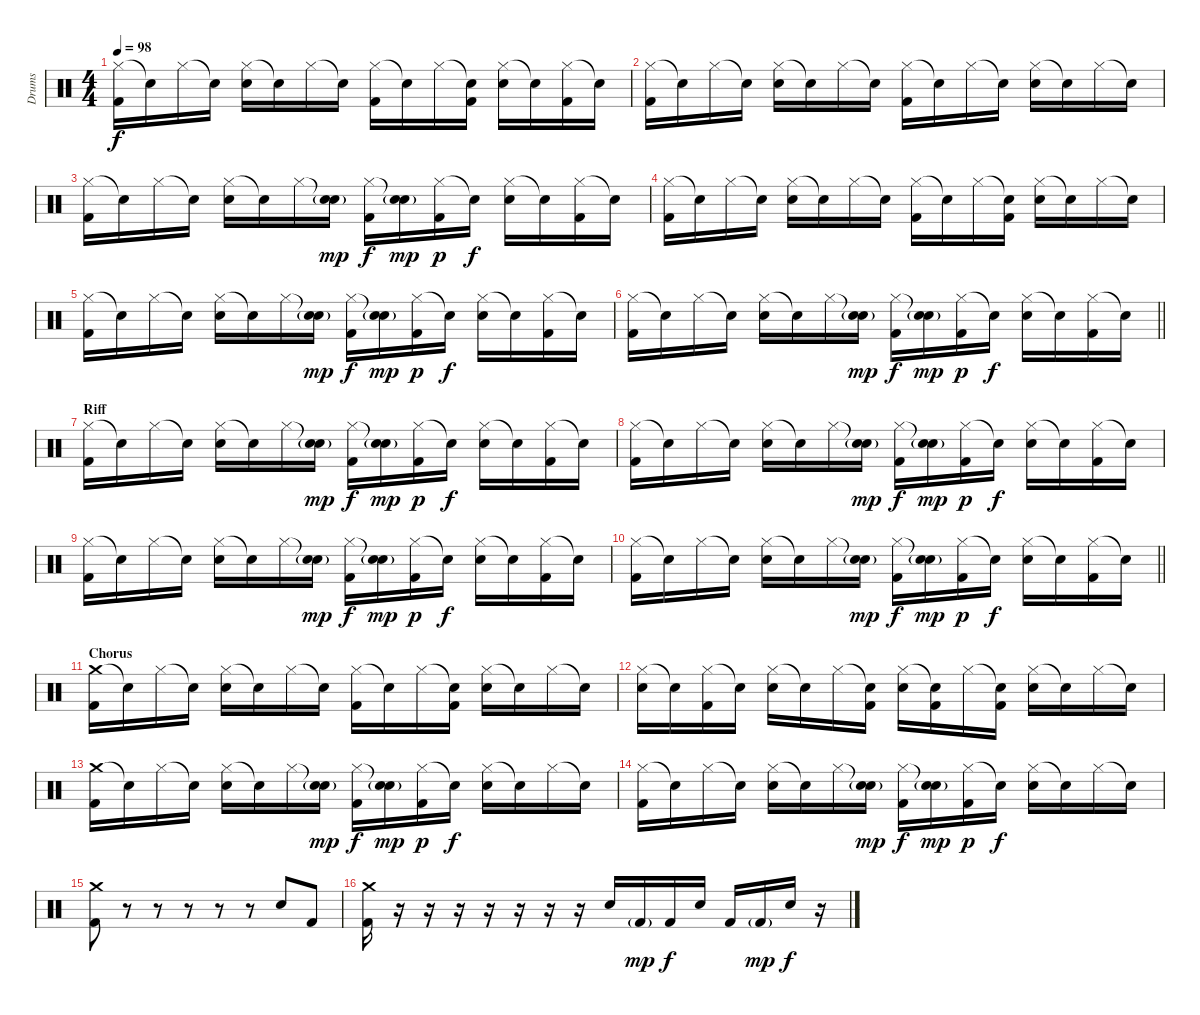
\track ("Drums" "Drums") {instrument percussion}
\staff {score}
\articulation defaults
\ts (4 4)
\tempo 98
\clef neutral
\ks c
("Hi-Hat (closed)" "Kick (hit) 2").16{dy f} "Snare (hit)"{t}.16 "Hi-Hat (closed)".16 "Snare (hit)"{t}.16 ("Hi-Hat (closed)" "Snare (hit) 2").16 "Snare (hit)"{t}.16 "Hi-Hat (closed)".16 "Snare (hit)"{t}.16 ("Hi-Hat (closed)" "Kick (hit) 2").16 "Snare (hit)"{t}.16 "Hi-Hat (closed)".16 ("Snare (hit)"{t} "Kick (hit) 2").16 ("Hi-Hat (closed)" "Snare (hit) 2").16 "Snare (hit)"{t}.16 ("Hi-Hat (closed)" "Kick (hit) 2").16 "Snare (hit)"{t}.16 |
("Hi-Hat (closed)" "Kick (hit) 2").16 "Snare (hit)"{t}.16 "Hi-Hat (closed)".16 "Snare (hit)"{t}.16 ("Hi-Hat (closed)" "Snare (hit) 2").16 "Snare (hit)"{t}.16 "Hi-Hat (closed)".16 "Snare (hit)"{t}.16 ("Hi-Hat (closed)" "Kick (hit) 2").16 "Snare (hit)"{t}.16 "Hi-Hat (closed)".16 "Snare (hit)"{t}.16 ("Hi-Hat (closed)" "Snare (hit) 2").16 "Snare (hit)"{t}.16 "Hi-Hat (closed)".16 "Snare (hit)"{t}.16 |
("Hi-Hat (closed)" "Kick (hit) 2").16 "Snare (hit)"{t}.16 "Hi-Hat (closed)".16 "Snare (hit)"{t}.16 ("Hi-Hat (closed)" "Snare (hit) 2").16 "Snare (hit)"{t}.16 "Hi-Hat (closed)".16 ("Snare (hit)"{t} "Snare (hit) 2"{g}).16{dy mp} ("Hi-Hat (closed)" "Kick (hit) 2").16{dy f} ("Snare (hit)"{t} "Snare (hit) 2"{g}).16{dy mp} ("Hi-Hat (closed)" "Kick (hit) 2").16{dy p} "Snare (hit)"{t}.16{dy f} ("Hi-Hat (closed)" "Snare (hit) 2").16 "Snare (hit)"{t}.16 ("Hi-Hat (closed)" "Kick (hit) 2").16 "Snare (hit)"{t}.16 |
("Hi-Hat (closed)" "Kick (hit) 2").16 "Snare (hit)"{t}.16 "Hi-Hat (closed)".16 "Snare (hit)"{t}.16 ("Hi-Hat (closed)" "Snare (hit) 2").16 "Snare (hit)"{t}.16 "Hi-Hat (closed)".16 "Snare (hit)"{t}.16 ("Hi-Hat (closed)" "Kick (hit) 2").16 "Snare (hit)"{t}.16 "Hi-Hat (closed)".16 ("Snare (hit)"{t} "Kick (hit) 2").16 ("Hi-Hat (closed)" "Snare (hit) 2").16 "Snare (hit)"{t}.16 "Hi-Hat (closed)".16 "Snare (hit)"{t}.16 |
("Hi-Hat (closed)" "Kick (hit) 2").16 "Snare (hit)"{t}.16 "Hi-Hat (closed)".16 "Snare (hit)"{t}.16 ("Hi-Hat (closed)" "Snare (hit) 2").16 "Snare (hit)"{t}.16 "Hi-Hat (closed)".16 ("Snare (hit)"{t} "Snare (hit) 2"{g}).16{dy mp} ("Hi-Hat (closed)" "Kick (hit) 2").16{dy f} ("Snare (hit)"{t} "Snare (hit) 2"{g}).16{dy mp} ("Hi-Hat (closed)" "Kick (hit) 2").16{dy p} "Snare (hit)"{t}.16{dy f} ("Hi-Hat (closed)" "Snare (hit) 2").16 "Snare (hit)"{t}.16 ("Hi-Hat (closed)" "Kick (hit) 2").16 "Snare (hit)"{t}.16 |
\barLineRight lightlight
("Hi-Hat (closed)" "Kick (hit) 2").16 "Snare (hit)"{t}.16 "Hi-Hat (closed)".16 "Snare (hit)"{t}.16 ("Hi-Hat (closed)" "Snare (hit) 2").16 "Snare (hit)"{t}.16 "Hi-Hat (closed)".16 ("Snare (hit)"{t} "Snare (hit) 2"{g}).16{dy mp} ("Hi-Hat (closed)" "Kick (hit) 2").16{dy f} ("Snare (hit)"{t} "Snare (hit) 2"{g}).16{dy mp} ("Hi-Hat (closed)" "Kick (hit) 2").16{dy p} "Snare (hit)"{t}.16{dy f} ("Hi-Hat (closed)" "Snare (hit) 2").16 "Snare (hit)"{t}.16 ("Hi-Hat (closed)" "Kick (hit) 2").16 "Snare (hit)"{t}.16 |
\section ("" "Riff")
("Hi-Hat (closed)" "Kick (hit) 2").16 "Snare (hit)"{t}.16 "Hi-Hat (closed)".16 "Snare (hit)"{t}.16 ("Hi-Hat (closed)" "Snare (hit) 2").16 "Snare (hit)"{t}.16 "Hi-Hat (closed)".16 ("Snare (hit)"{t} "Snare (hit) 2"{g}).16{dy mp} ("Hi-Hat (closed)" "Kick (hit) 2").16{dy f} ("Snare (hit)"{t} "Snare (hit) 2"{g}).16{dy mp} ("Hi-Hat (closed)" "Kick (hit) 2").16{dy p} "Snare (hit)"{t}.16{dy f} ("Hi-Hat (closed)" "Snare (hit) 2").16 "Snare (hit)"{t}.16 ("Hi-Hat (closed)" "Kick (hit) 2").16 "Snare (hit)"{t}.16 |
("Hi-Hat (closed)" "Kick (hit) 2").16 "Snare (hit)"{t}.16 "Hi-Hat (closed)".16 "Snare (hit)"{t}.16 ("Hi-Hat (closed)" "Snare (hit) 2").16 "Snare (hit)"{t}.16 "Hi-Hat (closed)".16 ("Snare (hit)"{t} "Snare (hit) 2"{g}).16{dy mp} ("Hi-Hat (closed)" "Kick (hit) 2").16{dy f} ("Snare (hit)"{t} "Snare (hit) 2"{g}).16{dy mp} ("Hi-Hat (closed)" "Kick (hit) 2").16{dy p} "Snare (hit)"{t}.16{dy f} ("Hi-Hat (closed)" "Snare (hit) 2").16 "Snare (hit)"{t}.16 ("Hi-Hat (closed)" "Kick (hit) 2").16 "Snare (hit)"{t}.16 |
("Hi-Hat (closed)" "Kick (hit) 2").16 "Snare (hit)"{t}.16 "Hi-Hat (closed)".16 "Snare (hit)"{t}.16 ("Hi-Hat (closed)" "Snare (hit) 2").16 "Snare (hit)"{t}.16 "Hi-Hat (closed)".16 ("Snare (hit)"{t} "Snare (hit) 2"{g}).16{dy mp} ("Hi-Hat (closed)" "Kick (hit) 2").16{dy f} ("Snare (hit)"{t} "Snare (hit) 2"{g}).16{dy mp} ("Hi-Hat (closed)" "Kick (hit) 2").16{dy p} "Snare (hit)"{t}.16{dy f} ("Hi-Hat (closed)" "Snare (hit) 2").16 "Snare (hit)"{t}.16 ("Hi-Hat (closed)" "Kick (hit) 2").16 "Snare (hit)"{t}.16 |
\barLineRight lightlight
("Hi-Hat (closed)" "Kick (hit) 2").16 "Snare (hit)"{t}.16 "Hi-Hat (closed)".16 "Snare (hit)"{t}.16 ("Hi-Hat (closed)" "Snare (hit) 2").16 "Snare (hit)"{t}.16 "Hi-Hat (closed)".16 ("Snare (hit)"{t} "Snare (hit) 2"{g}).16{dy mp} ("Hi-Hat (closed)" "Kick (hit) 2").16{dy f} ("Snare (hit)"{t} "Snare (hit) 2"{g}).16{dy mp} ("Hi-Hat (closed)" "Kick (hit) 2").16{dy p} "Snare (hit)"{t}.16{dy f} ("Hi-Hat (closed)" "Snare (hit) 2").16 "Snare (hit)"{t}.16 ("Hi-Hat (closed)" "Kick (hit) 2").16 "Snare (hit)"{t}.16 |
\section ("" "Chorus")
("Crash medium (hit)" "Kick (hit) 2").16 "Snare (hit)"{t}.16 "Hi-Hat (closed)".16 "Snare (hit)"{t}.16 ("Hi-Hat (closed)" "Snare (hit) 2").16 "Snare (hit)"{t}.16 "Hi-Hat (closed)".16 "Snare (hit)"{t}.16 ("Hi-Hat (closed)" "Kick (hit) 2").16 "Snare (hit)"{t}.16 "Hi-Hat (closed)".16 ("Snare (hit)"{t} "Kick (hit) 2").16 ("Hi-Hat (closed)" "Snare (hit) 2").16 "Snare (hit)"{t}.16 "Hi-Hat (closed)".16 "Snare (hit)"{t}.16 |
("Hi-Hat (closed)" "Snare (hit) 2").16 "Snare (hit)"{t}.16 ("Hi-Hat (closed)" "Kick (hit) 2").16 "Snare (hit)"{t}.16 ("Hi-Hat (closed)" "Snare (hit) 2").16 "Snare (hit)"{t}.16 "Hi-Hat (closed)".16 ("Snare (hit)"{t} "Kick (hit) 2").16 ("Hi-Hat (closed)" "Snare (hit) 2").16 ("Snare (hit)"{t} "Kick (hit) 2").16 "Hi-Hat (closed)".16 ("Snare (hit)"{t} "Kick (hit) 2").16 ("Hi-Hat (closed)" "Snare (hit) 2").16 "Snare (hit)"{t}.16 "Hi-Hat (closed)".16 "Snare (hit)"{t}.16 |
("Crash medium (hit)" "Kick (hit) 2").16 "Snare (hit)"{t}.16 "Hi-Hat (closed)".16 "Snare (hit)"{t}.16 ("Hi-Hat (closed)" "Snare (hit) 2").16 "Snare (hit)"{t}.16 "Hi-Hat (closed)".16 ("Snare (hit)"{t} "Snare (hit) 2"{g}).16{dy mp} ("Hi-Hat (closed)" "Kick (hit) 2").16{dy f} ("Snare (hit)"{t} "Snare (hit) 2"{g}).16{dy mp} ("Hi-Hat (closed)" "Kick (hit) 2").16{dy p} "Snare (hit)"{t}.16{dy f} ("Hi-Hat (closed)" "Snare (hit) 2").16 "Snare (hit)"{t}.16 "Hi-Hat (closed)".16 "Snare (hit)"{t}.16 |
("Hi-Hat (closed)" "Kick (hit) 2").16 "Snare (hit)"{t}.16 "Hi-Hat (closed)".16 "Snare (hit)"{t}.16 ("Hi-Hat (closed)" "Snare (hit) 2").16 "Snare (hit)"{t}.16 "Hi-Hat (closed)".16 ("Snare (hit)"{t} "Snare (hit) 2"{g}).16{dy mp} ("Hi-Hat (closed)" "Kick (hit) 2").16{dy f} ("Snare (hit)"{t} "Snare (hit) 2"{g}).16{dy mp} ("Hi-Hat (closed)" "Kick (hit) 2").16{dy p} "Snare (hit)"{t}.16{dy f} ("Hi-Hat (closed)" "Snare (hit) 2").16 "Snare (hit)"{t}.16 "Hi-Hat (closed)".16 "Snare (hit)"{t}.16 |
("Crash medium (hit)" "Kick (hit) 2").8 r.8 r.8 r.8 r.8 r.8 "Snare (hit) 2".8 "Kick (hit) 2".8 |
("Crash medium (hit)" "Kick (hit) 2").16 r.16 r.16 r.16 r.16 r.16 r.16 r.16 "Snare (hit) 2".16 "Kick (hit) 2"{g}.16{dy mp} "Kick (hit) 2".16{dy f} "Snare (hit) 2".16 "Kick (hit) 2".16 "Kick (hit) 2"{g}.16{dy mp} "Snare (hit) 2".16{dy f} r.16
